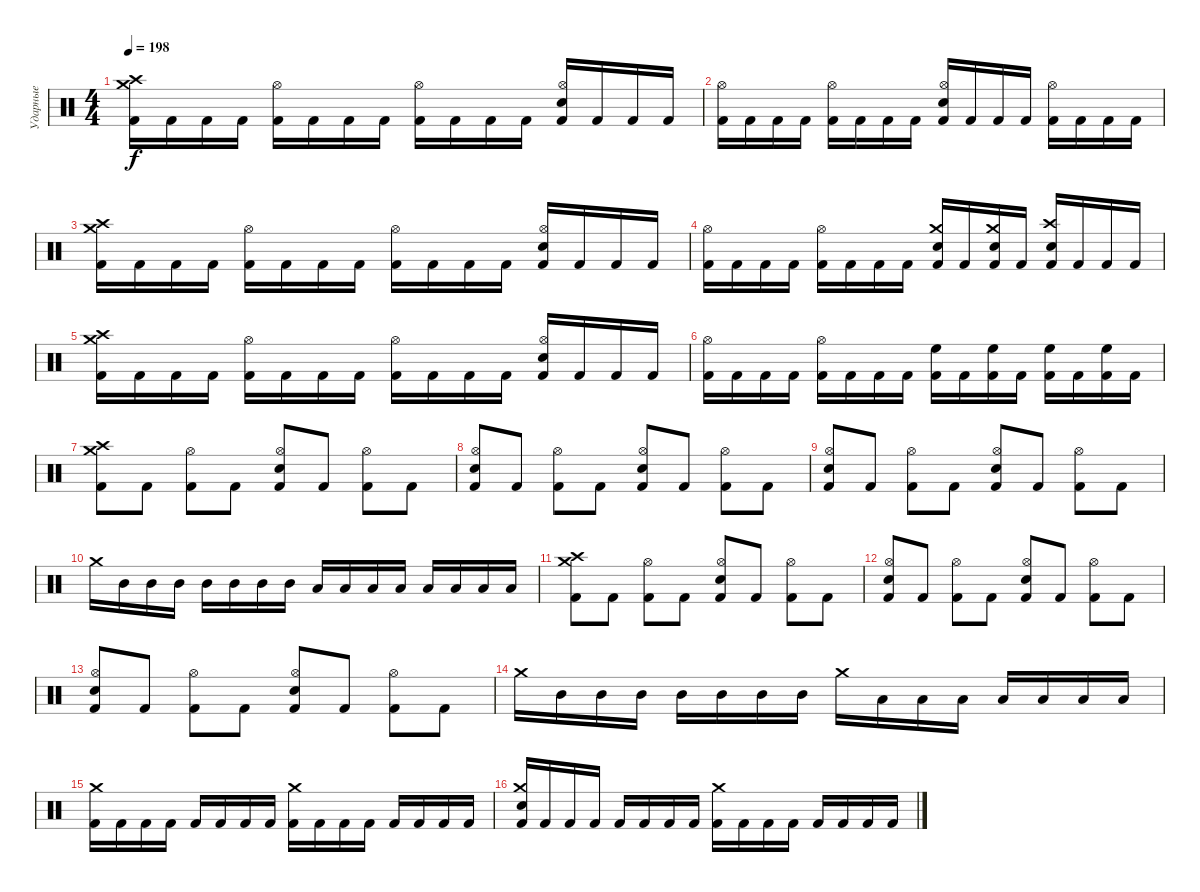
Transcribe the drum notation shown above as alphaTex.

\track ("Ударные" "Ударные") {instrument percussion}
\staff {score}
\articulation defaults
\ts (4 4)
\tempo 198
\clef neutral
\ks c
("Kick (hit) 2" "Crash medium (hit)" "Crash high (hit)").16{dy f} "Kick (hit) 2".16 "Kick (hit) 2".16 "Kick (hit) 2".16 ("Kick (hit) 2" "Hi-Hat (open)").16 "Kick (hit) 2".16 "Kick (hit) 2".16 "Kick (hit) 2".16 ("Kick (hit) 2" "Hi-Hat (open)").16 "Kick (hit) 2".16 "Kick (hit) 2".16 "Kick (hit) 2".16 ("Kick (hit) 2" "Hi-Hat (open)" "Electric Snare (hit)").16 "Kick (hit) 2".16 "Kick (hit) 2".16 "Kick (hit) 2".16 |
("Kick (hit) 2" "Hi-Hat (open)").16 "Kick (hit) 2".16 "Kick (hit) 2".16 "Kick (hit) 2".16 ("Kick (hit) 2" "Hi-Hat (open)").16 "Kick (hit) 2".16 "Kick (hit) 2".16 "Kick (hit) 2".16 ("Kick (hit) 2" "Hi-Hat (open)" "Electric Snare (hit)").16 "Kick (hit) 2".16 "Kick (hit) 2".16 "Kick (hit) 2".16 ("Kick (hit) 2" "Hi-Hat (open)").16 "Kick (hit) 2".16 "Kick (hit) 2".16 "Kick (hit) 2".16 |
("Kick (hit) 2" "Crash medium (hit)" "Crash high (hit)").16 "Kick (hit) 2".16 "Kick (hit) 2".16 "Kick (hit) 2".16 ("Kick (hit) 2" "Hi-Hat (open)").16 "Kick (hit) 2".16 "Kick (hit) 2".16 "Kick (hit) 2".16 ("Kick (hit) 2" "Hi-Hat (open)").16 "Kick (hit) 2".16 "Kick (hit) 2".16 "Kick (hit) 2".16 ("Kick (hit) 2" "Hi-Hat (open)" "Electric Snare (hit)").16 "Kick (hit) 2".16 "Kick (hit) 2".16 "Kick (hit) 2".16 |
("Kick (hit) 2" "Hi-Hat (open)").16 "Kick (hit) 2".16 "Kick (hit) 2".16 "Kick (hit) 2".16 ("Kick (hit) 2" "Hi-Hat (open)").16 "Kick (hit) 2".16 "Kick (hit) 2".16 "Kick (hit) 2".16 ("Kick (hit) 2" "Crash medium (hit)" "Electric Snare (hit)").16 "Kick (hit) 2".16 ("Kick (hit) 2" "Crash medium (hit)" "Electric Snare (hit)").16 "Kick (hit) 2".16 ("Kick (hit) 2" "Crash high (hit)" "Electric Snare (hit)").16 "Kick (hit) 2".16 "Kick (hit) 2".16 "Kick (hit) 2".16 |
("Kick (hit) 2" "Crash medium (hit)" "Crash high (hit)").16 "Kick (hit) 2".16 "Kick (hit) 2".16 "Kick (hit) 2".16 ("Kick (hit) 2" "Hi-Hat (open)").16 "Kick (hit) 2".16 "Kick (hit) 2".16 "Kick (hit) 2".16 ("Kick (hit) 2" "Hi-Hat (open)").16 "Kick (hit) 2".16 "Kick (hit) 2".16 "Kick (hit) 2".16 ("Kick (hit) 2" "Hi-Hat (open)" "Electric Snare (hit)").16 "Kick (hit) 2".16 "Kick (hit) 2".16 "Kick (hit) 2".16 |
("Kick (hit) 2" "Hi-Hat (open)").16 "Kick (hit) 2".16 "Kick (hit) 2".16 "Kick (hit) 2".16 ("Kick (hit) 2" "Hi-Hat (open)").16 "Kick (hit) 2".16 "Kick (hit) 2".16 "Kick (hit) 2".16 ("Kick (hit) 2" "High Floor Tom (hit)").16 "Kick (hit) 2".16 ("Kick (hit) 2" "High Floor Tom (hit)").16 "Kick (hit) 2".16 ("Kick (hit) 2" "High Floor Tom (hit)").16 "Kick (hit) 2".16 ("Kick (hit) 2" "High Floor Tom (hit)").16 "Kick (hit) 2".16 |
("Kick (hit) 2" "Crash medium (hit)" "Crash high (hit)").8 "Kick (hit) 2".8 ("Kick (hit) 2" "Hi-Hat (open)").8 "Kick (hit) 2".8 ("Kick (hit) 2" "Hi-Hat (open)" "Electric Snare (hit)").8 "Kick (hit) 2".8 ("Kick (hit) 2" "Hi-Hat (open)").8 "Kick (hit) 2".8 |
("Kick (hit) 2" "Hi-Hat (open)" "Electric Snare (hit)").8 "Kick (hit) 2".8 ("Kick (hit) 2" "Hi-Hat (open)").8 "Kick (hit) 2".8 ("Kick (hit) 2" "Hi-Hat (open)" "Electric Snare (hit)").8 "Kick (hit) 2".8 ("Kick (hit) 2" "Hi-Hat (open)").8 "Kick (hit) 2".8 |
("Kick (hit) 2" "Hi-Hat (open)" "Electric Snare (hit)").8 "Kick (hit) 2".8 ("Kick (hit) 2" "Hi-Hat (open)").8 "Kick (hit) 2".8 ("Kick (hit) 2" "Hi-Hat (open)" "Electric Snare (hit)").8 "Kick (hit) 2".8 ("Kick (hit) 2" "Hi-Hat (open)").8 "Kick (hit) 2".8 |
"Crash medium (hit)".16 "Mid Tom (hit)".16 "Mid Tom (hit)".16 "Mid Tom (hit)".16 "Mid Tom (hit)".16 "Mid Tom (hit)".16 "Mid Tom (hit)".16 "Mid Tom (hit)".16 "Low Tom (hit)".16 "Low Tom (hit)".16 "Low Tom (hit)".16 "Low Tom (hit)".16 "Low Tom (hit)".16 "Low Tom (hit)".16 "Low Tom (hit)".16 "Low Tom (hit)".16 |
("Kick (hit) 2" "Crash medium (hit)" "Crash high (hit)").8 "Kick (hit) 2".8 ("Kick (hit) 2" "Hi-Hat (open)").8 "Kick (hit) 2".8 ("Kick (hit) 2" "Hi-Hat (open)" "Electric Snare (hit)").8 "Kick (hit) 2".8 ("Kick (hit) 2" "Hi-Hat (open)").8 "Kick (hit) 2".8 |
("Kick (hit) 2" "Hi-Hat (open)" "Electric Snare (hit)").8 "Kick (hit) 2".8 ("Kick (hit) 2" "Hi-Hat (open)").8 "Kick (hit) 2".8 ("Kick (hit) 2" "Hi-Hat (open)" "Electric Snare (hit)").8 "Kick (hit) 2".8 ("Kick (hit) 2" "Hi-Hat (open)").8 "Kick (hit) 2".8 |
("Kick (hit) 2" "Hi-Hat (open)" "Electric Snare (hit)").8 "Kick (hit) 2".8 ("Kick (hit) 2" "Hi-Hat (open)").8 "Kick (hit) 2".8 ("Kick (hit) 2" "Hi-Hat (open)" "Electric Snare (hit)").8 "Kick (hit) 2".8 ("Kick (hit) 2" "Hi-Hat (open)").8 "Kick (hit) 2".8 |
"Crash medium (hit)".16 "Mid Tom (hit)".16 "Mid Tom (hit)".16 "Mid Tom (hit)".16 "Mid Tom (hit)".16 "Mid Tom (hit)".16 "Mid Tom (hit)".16 "Mid Tom (hit)".16 "Crash medium (hit)".16 "Low Tom (hit)".16 "Low Tom (hit)".16 "Low Tom (hit)".16 "Low Tom (hit)".16 "Low Tom (hit)".16 "Low Tom (hit)".16 "Low Tom (hit)".16 |
("Kick (hit) 2" "Crash medium (hit)").16 "Kick (hit) 2".16 "Kick (hit) 2".16 "Kick (hit) 2".16 "Kick (hit) 2".16 "Kick (hit) 2".16 "Kick (hit) 2".16 "Kick (hit) 2".16 ("Kick (hit) 2" "Crash medium (hit)").16 "Kick (hit) 2".16 "Kick (hit) 2".16 "Kick (hit) 2".16 "Kick (hit) 2".16 "Kick (hit) 2".16 "Kick (hit) 2".16 "Kick (hit) 2".16 |
("Kick (hit) 2" "Crash medium (hit)" "Electric Snare (hit)").16 "Kick (hit) 2".16 "Kick (hit) 2".16 "Kick (hit) 2".16 "Kick (hit) 2".16 "Kick (hit) 2".16 "Kick (hit) 2".16 "Kick (hit) 2".16 ("Kick (hit) 2" "Crash medium (hit)").16 "Kick (hit) 2".16 "Kick (hit) 2".16 "Kick (hit) 2".16 "Kick (hit) 2".16 "Kick (hit) 2".16 "Kick (hit) 2".16 "Kick (hit) 2".16
